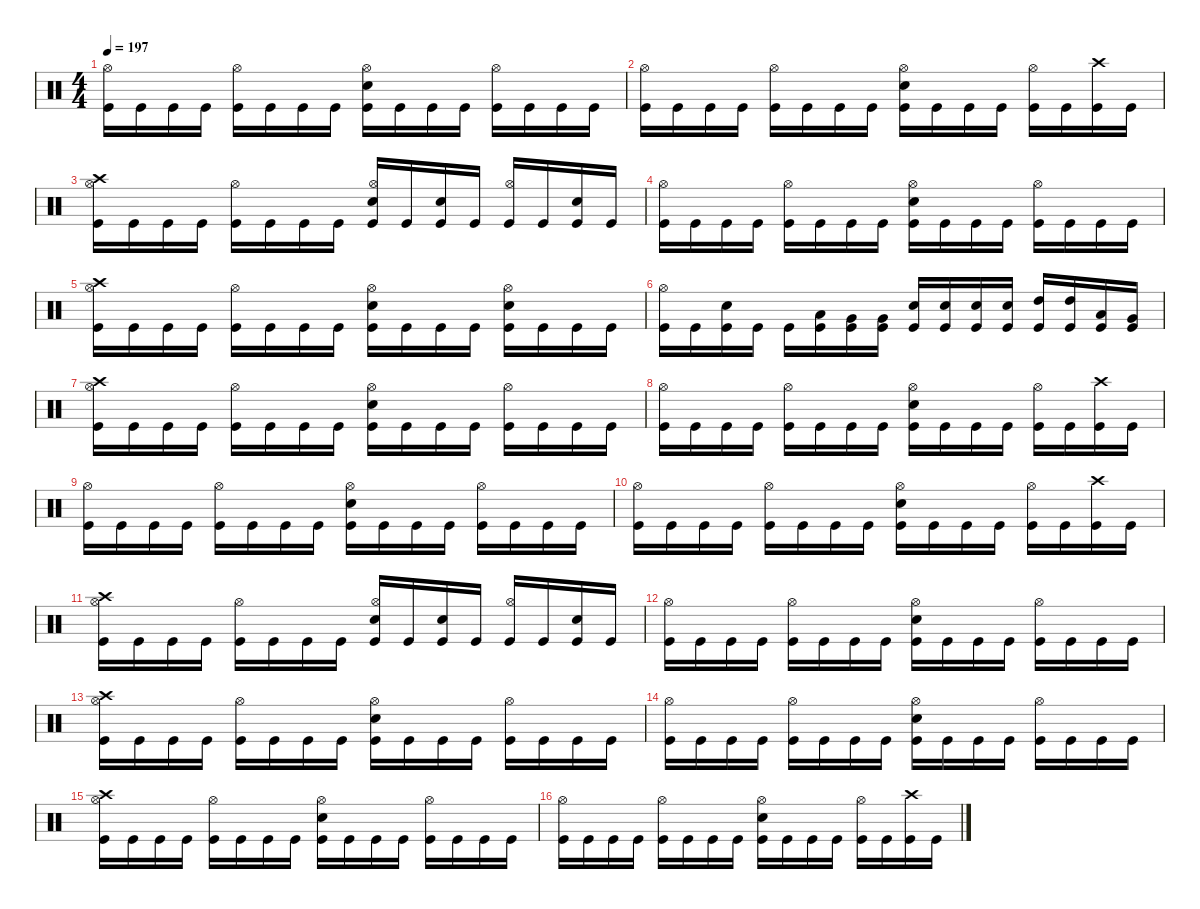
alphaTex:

\defaultSystemsLayout 4
\hideDynamics
\bracketExtendMode nobrackets
\singleTrackTrackNamePolicy hidden
\multiTrackTrackNamePolicy hidden
\firstSystemTrackNameMode fullname
\firstSystemTrackNameOrientation horizontal
\otherSystemsTrackNameOrientation horizontal
\track ("Drums" "drm.") {defaultSystemsLayout 4 instrument percussion}
\staff {score}
\articulation defaults
\ts (4 4)
\tempo 197
\clef neutral
\ks c
("Hi-Hat (open)" "Kick (hit)").16{dy f beam Down} "Kick (hit)".16{beam Down} "Kick (hit)".16{beam Down} "Kick (hit)".16{beam Down} ("Hi-Hat (open)" "Kick (hit)").16{beam Down} "Kick (hit)".16{beam Down} "Kick (hit)".16{beam Down} "Kick (hit)".16{beam Down} ("Hi-Hat (open)" "Snare (hit) 2" "Kick (hit)").16{beam Down} "Kick (hit)".16{beam Down} "Kick (hit)".16{beam Down} "Kick (hit)".16{beam Down} ("Hi-Hat (open)" "Kick (hit)").16{beam Down} "Kick (hit)".16{beam Down} "Kick (hit)".16{beam Down} "Kick (hit)".16{beam Down} |
("Hi-Hat (open)" "Kick (hit)").16{beam Down} "Kick (hit)".16{beam Down} "Kick (hit)".16{beam Down} "Kick (hit)".16{beam Down} ("Hi-Hat (open)" "Kick (hit)").16{beam Down} "Kick (hit)".16{beam Down} "Kick (hit)".16{beam Down} "Kick (hit)".16{beam Down} ("Hi-Hat (open)" "Snare (hit) 2" "Kick (hit)").16{beam Down} "Kick (hit)".16{beam Down} "Kick (hit)".16{beam Down} "Kick (hit)".16{beam Down} ("Hi-Hat (open)" "Kick (hit)").16{beam Down} "Kick (hit)".16{beam Down} ("Crash high (hit)" "Kick (hit)").16{beam Down} "Kick (hit)".16{beam Down} |
("Crash high (hit)" "Hi-Hat (open)" "Kick (hit)").16{beam Down} "Kick (hit)".16{beam Down} "Kick (hit)".16{beam Down} "Kick (hit)".16{beam Down} ("Hi-Hat (open)" "Kick (hit)").16{beam Down} "Kick (hit)".16{beam Down} "Kick (hit)".16{beam Down} "Kick (hit)".16{beam Down} ("Hi-Hat (open)" "Snare (hit) 2" "Kick (hit)").16{beam Up} "Kick (hit)".16{beam Up} ("Snare (hit) 2" "Kick (hit)").16{beam Up} "Kick (hit)".16{beam Up} ("Hi-Hat (open)" "Kick (hit)").16{beam Up} "Kick (hit)".16{beam Up} ("Snare (hit) 2" "Kick (hit)").16{beam Up} "Kick (hit)".16{beam Up} |
("Hi-Hat (open)" "Kick (hit)").16{beam Down} "Kick (hit)".16{beam Down} "Kick (hit)".16{beam Down} "Kick (hit)".16{beam Down} ("Hi-Hat (open)" "Kick (hit)").16{beam Down} "Kick (hit)".16{beam Down} "Kick (hit)".16{beam Down} "Kick (hit)".16{beam Down} ("Hi-Hat (open)" "Snare (hit) 2" "Kick (hit)").16{beam Down} "Kick (hit)".16{beam Down} "Kick (hit)".16{beam Down} "Kick (hit)".16{beam Down} ("Hi-Hat (open)" "Kick (hit)").16{beam Down} "Kick (hit)".16{beam Down} "Kick (hit)".16{beam Down} "Kick (hit)".16{beam Down} |
("Crash high (hit)" "Hi-Hat (open)" "Kick (hit)").16{beam Down} "Kick (hit)".16{beam Down} "Kick (hit)".16{beam Down} "Kick (hit)".16{beam Down} ("Hi-Hat (open)" "Kick (hit)").16{beam Down} "Kick (hit)".16{beam Down} "Kick (hit)".16{beam Down} "Kick (hit)".16{beam Down} ("Hi-Hat (open)" "Snare (hit) 2" "Kick (hit)").16{beam Down} "Kick (hit)".16{beam Down} "Kick (hit)".16{beam Down} "Kick (hit)".16{beam Down} ("Hi-Hat (open)" "Snare (hit) 2" "Kick (hit)").16{beam Down} "Kick (hit)".16{beam Down} "Kick (hit)".16{beam Down} "Kick (hit)".16{beam Down} |
("Hi-Hat (open)" "Kick (hit)").16{beam Down} "Kick (hit)".16{beam Down} ("Snare (hit) 2" "Kick (hit)").16{beam Down} "Kick (hit)".16{beam Down} "Kick (hit)".16{beam Down} ("Low Tom (hit)" "Kick (hit)").16{beam Down} ("Very Low Tom (hit)" "Kick (hit)").16{beam Down} ("Very Low Tom (hit)" "Kick (hit)").16{beam Down} ("Snare (hit) 2" "Kick (hit)").16{beam Up} ("Snare (hit) 2" "Kick (hit)").16{beam Up} ("Snare (hit) 2" "Kick (hit)").16{beam Up} ("Snare (hit) 2" "Kick (hit)").16{beam Up} ("High Tom (hit)" "Kick (hit)").16{beam Up} ("High Tom (hit)" "Kick (hit)").16{beam Up} ("Low Tom (hit)" "Kick (hit)").16{beam Up} ("Very Low Tom (hit)" "Kick (hit)").16{beam Up} |
("Crash high (hit)" "Hi-Hat (open)" "Kick (hit)").16{beam Down} "Kick (hit)".16{beam Down} "Kick (hit)".16{beam Down} "Kick (hit)".16{beam Down} ("Hi-Hat (open)" "Kick (hit)").16{beam Down} "Kick (hit)".16{beam Down} "Kick (hit)".16{beam Down} "Kick (hit)".16{beam Down} ("Hi-Hat (open)" "Snare (hit) 2" "Kick (hit)").16{beam Down} "Kick (hit)".16{beam Down} "Kick (hit)".16{beam Down} "Kick (hit)".16{beam Down} ("Hi-Hat (open)" "Kick (hit)").16{beam Down} "Kick (hit)".16{beam Down} "Kick (hit)".16{beam Down} "Kick (hit)".16{beam Down} |
("Hi-Hat (open)" "Kick (hit)").16{beam Down} "Kick (hit)".16{beam Down} "Kick (hit)".16{beam Down} "Kick (hit)".16{beam Down} ("Hi-Hat (open)" "Kick (hit)").16{beam Down} "Kick (hit)".16{beam Down} "Kick (hit)".16{beam Down} "Kick (hit)".16{beam Down} ("Hi-Hat (open)" "Snare (hit) 2" "Kick (hit)").16{beam Down} "Kick (hit)".16{beam Down} "Kick (hit)".16{beam Down} "Kick (hit)".16{beam Down} ("Hi-Hat (open)" "Kick (hit)").16{beam Down} "Kick (hit)".16{beam Down} ("Crash high (hit)" "Kick (hit)").16{beam Down} "Kick (hit)".16{beam Down} |
("Hi-Hat (open)" "Kick (hit)").16{beam Down} "Kick (hit)".16{beam Down} "Kick (hit)".16{beam Down} "Kick (hit)".16{beam Down} ("Hi-Hat (open)" "Kick (hit)").16{beam Down} "Kick (hit)".16{beam Down} "Kick (hit)".16{beam Down} "Kick (hit)".16{beam Down} ("Hi-Hat (open)" "Snare (hit) 2" "Kick (hit)").16{beam Down} "Kick (hit)".16{beam Down} "Kick (hit)".16{beam Down} "Kick (hit)".16{beam Down} ("Hi-Hat (open)" "Kick (hit)").16{beam Down} "Kick (hit)".16{beam Down} "Kick (hit)".16{beam Down} "Kick (hit)".16{beam Down} |
("Hi-Hat (open)" "Kick (hit)").16{beam Down} "Kick (hit)".16{beam Down} "Kick (hit)".16{beam Down} "Kick (hit)".16{beam Down} ("Hi-Hat (open)" "Kick (hit)").16{beam Down} "Kick (hit)".16{beam Down} "Kick (hit)".16{beam Down} "Kick (hit)".16{beam Down} ("Hi-Hat (open)" "Snare (hit) 2" "Kick (hit)").16{beam Down} "Kick (hit)".16{beam Down} "Kick (hit)".16{beam Down} "Kick (hit)".16{beam Down} ("Hi-Hat (open)" "Kick (hit)").16{beam Down} "Kick (hit)".16{beam Down} ("Crash high (hit)" "Kick (hit)").16{beam Down} "Kick (hit)".16{beam Down} |
("Crash high (hit)" "Hi-Hat (open)" "Kick (hit)").16{beam Down} "Kick (hit)".16{beam Down} "Kick (hit)".16{beam Down} "Kick (hit)".16{beam Down} ("Hi-Hat (open)" "Kick (hit)").16{beam Down} "Kick (hit)".16{beam Down} "Kick (hit)".16{beam Down} "Kick (hit)".16{beam Down} ("Hi-Hat (open)" "Snare (hit) 2" "Kick (hit)").16{beam Up} "Kick (hit)".16{beam Up} ("Snare (hit) 2" "Kick (hit)").16{beam Up} "Kick (hit)".16{beam Up} ("Hi-Hat (open)" "Kick (hit)").16{beam Up} "Kick (hit)".16{beam Up} ("Snare (hit) 2" "Kick (hit)").16{beam Up} "Kick (hit)".16{beam Up} |
("Hi-Hat (open)" "Kick (hit)").16{beam Down} "Kick (hit)".16{beam Down} "Kick (hit)".16{beam Down} "Kick (hit)".16{beam Down} ("Hi-Hat (open)" "Kick (hit)").16{beam Down} "Kick (hit)".16{beam Down} "Kick (hit)".16{beam Down} "Kick (hit)".16{beam Down} ("Hi-Hat (open)" "Snare (hit) 2" "Kick (hit)").16{beam Down} "Kick (hit)".16{beam Down} "Kick (hit)".16{beam Down} "Kick (hit)".16{beam Down} ("Hi-Hat (open)" "Kick (hit)").16{beam Down} "Kick (hit)".16{beam Down} "Kick (hit)".16{beam Down} "Kick (hit)".16{beam Down} |
("Crash high (hit)" "Hi-Hat (open)" "Kick (hit)").16{beam Down} "Kick (hit)".16{beam Down} "Kick (hit)".16{beam Down} "Kick (hit)".16{beam Down} ("Hi-Hat (open)" "Kick (hit)").16{beam Down} "Kick (hit)".16{beam Down} "Kick (hit)".16{beam Down} "Kick (hit)".16{beam Down} ("Hi-Hat (open)" "Snare (hit) 2" "Kick (hit)").16{beam Down} "Kick (hit)".16{beam Down} "Kick (hit)".16{beam Down} "Kick (hit)".16{beam Down} ("Hi-Hat (open)" "Kick (hit)").16{beam Down} "Kick (hit)".16{beam Down} "Kick (hit)".16{beam Down} "Kick (hit)".16{beam Down} |
("Hi-Hat (open)" "Kick (hit)").16{beam Down} "Kick (hit)".16{beam Down} "Kick (hit)".16{beam Down} "Kick (hit)".16{beam Down} ("Hi-Hat (open)" "Kick (hit)").16{beam Down} "Kick (hit)".16{beam Down} "Kick (hit)".16{beam Down} "Kick (hit)".16{beam Down} ("Hi-Hat (open)" "Snare (hit) 2" "Kick (hit)").16{beam Down} "Kick (hit)".16{beam Down} "Kick (hit)".16{beam Down} "Kick (hit)".16{beam Down} ("Hi-Hat (open)" "Kick (hit)").16{beam Down} "Kick (hit)".16{beam Down} "Kick (hit)".16{beam Down} "Kick (hit)".16{beam Down} |
("Crash high (hit)" "Hi-Hat (open)" "Kick (hit)").16{beam Down} "Kick (hit)".16{beam Down} "Kick (hit)".16{beam Down} "Kick (hit)".16{beam Down} ("Hi-Hat (open)" "Kick (hit)").16{beam Down} "Kick (hit)".16{beam Down} "Kick (hit)".16{beam Down} "Kick (hit)".16{beam Down} ("Hi-Hat (open)" "Snare (hit) 2" "Kick (hit)").16{beam Down} "Kick (hit)".16{beam Down} "Kick (hit)".16{beam Down} "Kick (hit)".16{beam Down} ("Hi-Hat (open)" "Kick (hit)").16{beam Down} "Kick (hit)".16{beam Down} "Kick (hit)".16{beam Down} "Kick (hit)".16{beam Down} |
("Hi-Hat (open)" "Kick (hit)").16{beam Down} "Kick (hit)".16{beam Down} "Kick (hit)".16{beam Down} "Kick (hit)".16{beam Down} ("Hi-Hat (open)" "Kick (hit)").16{beam Down} "Kick (hit)".16{beam Down} "Kick (hit)".16{beam Down} "Kick (hit)".16{beam Down} ("Hi-Hat (open)" "Snare (hit) 2" "Kick (hit)").16{beam Down} "Kick (hit)".16{beam Down} "Kick (hit)".16{beam Down} "Kick (hit)".16{beam Down} ("Hi-Hat (open)" "Kick (hit)").16{beam Down} "Kick (hit)".16{beam Down} ("Crash high (hit)" "Kick (hit)").16{beam Down} "Kick (hit)".16{beam Down}
